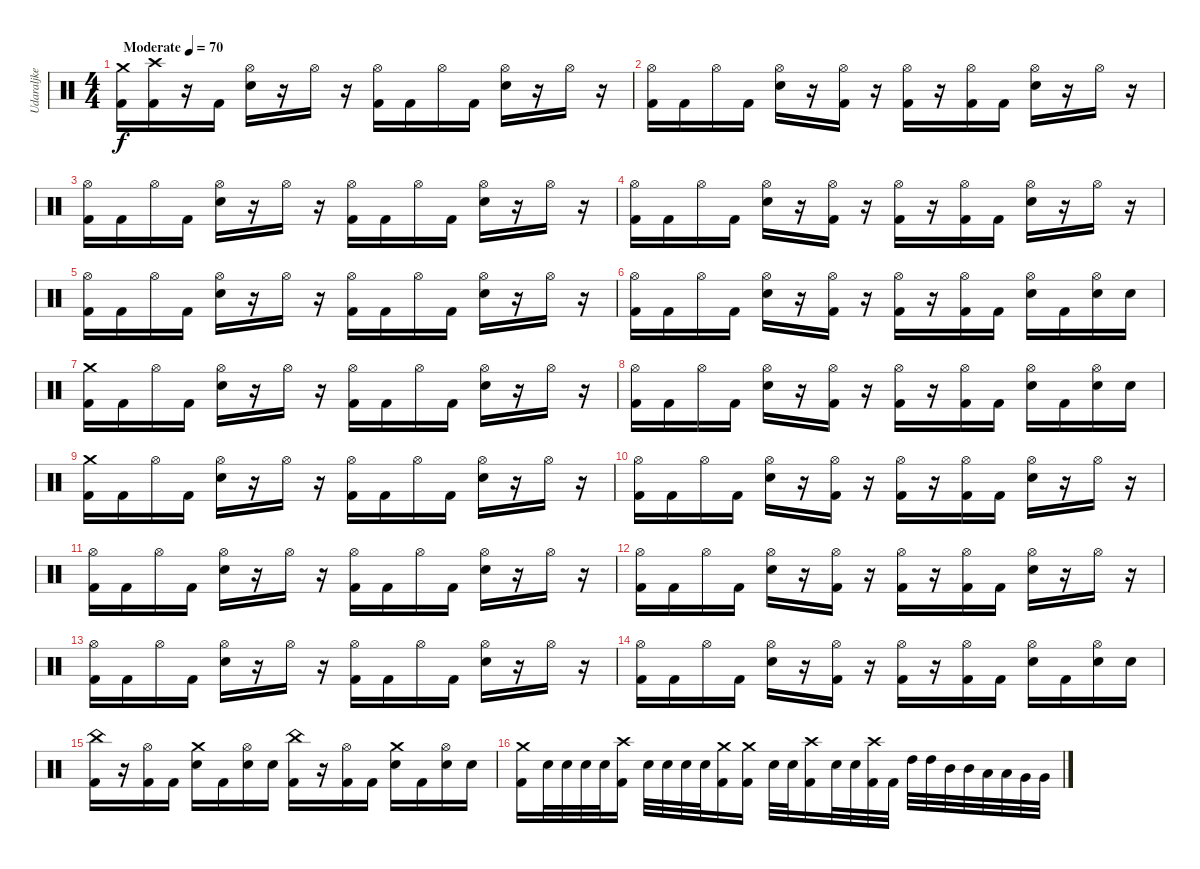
\track ("Udaraljke" "Udaraljke") {instrument percussion}
\staff {score}
\articulation defaults
\ts (4 4)
\tempo (70 "Moderate")
\clef neutral
\ks c
("Crash medium (hit)" "Kick (hit) 2").16{dy f} ("Crash high (hit)" "Kick (hit) 2").16 r.16 "Kick (hit) 2".16 ("Hi-Hat (open)" "Snare (hit) 2").16 r.16 "Hi-Hat (open)".16 r.16 ("Hi-Hat (open)" "Kick (hit) 2").16 "Kick (hit) 2".16 "Hi-Hat (open)".16 "Kick (hit) 2".16 ("Hi-Hat (open)" "Snare (hit) 2").16 r.16 "Hi-Hat (open)".16 r.16 |
("Hi-Hat (open)" "Kick (hit) 2").16 "Kick (hit) 2".16 "Hi-Hat (open)".16 "Kick (hit) 2".16 ("Hi-Hat (open)" "Snare (hit) 2").16 r.16 ("Hi-Hat (open)" "Kick (hit) 2").16 r.16 ("Hi-Hat (open)" "Kick (hit) 2").16 r.16 ("Hi-Hat (open)" "Kick (hit) 2").16 "Kick (hit) 2".16 ("Hi-Hat (open)" "Snare (hit) 2").16 r.16 "Hi-Hat (open)".16 r.16 |
("Hi-Hat (open)" "Kick (hit) 2").16 "Kick (hit) 2".16 "Hi-Hat (open)".16 "Kick (hit) 2".16 ("Hi-Hat (open)" "Snare (hit) 2").16 r.16 "Hi-Hat (open)".16 r.16 ("Hi-Hat (open)" "Kick (hit) 2").16 "Kick (hit) 2".16 "Hi-Hat (open)".16 "Kick (hit) 2".16 ("Hi-Hat (open)" "Snare (hit) 2").16 r.16 "Hi-Hat (open)".16 r.16 |
("Hi-Hat (open)" "Kick (hit) 2").16 "Kick (hit) 2".16 "Hi-Hat (open)".16 "Kick (hit) 2".16 ("Hi-Hat (open)" "Snare (hit) 2").16 r.16 ("Hi-Hat (open)" "Kick (hit) 2").16 r.16 ("Hi-Hat (open)" "Kick (hit) 2").16 r.16 ("Hi-Hat (open)" "Kick (hit) 2").16 "Kick (hit) 2".16 ("Hi-Hat (open)" "Snare (hit) 2").16 r.16 "Hi-Hat (open)".16 r.16 |
("Hi-Hat (open)" "Kick (hit) 2").16 "Kick (hit) 2".16 "Hi-Hat (open)".16 "Kick (hit) 2".16 ("Hi-Hat (open)" "Snare (hit) 2").16 r.16 "Hi-Hat (open)".16 r.16 ("Hi-Hat (open)" "Kick (hit) 2").16 "Kick (hit) 2".16 "Hi-Hat (open)".16 "Kick (hit) 2".16 ("Hi-Hat (open)" "Snare (hit) 2").16 r.16 "Hi-Hat (open)".16 r.16 |
("Hi-Hat (open)" "Kick (hit) 2").16 "Kick (hit) 2".16 "Hi-Hat (open)".16 "Kick (hit) 2".16 ("Hi-Hat (open)" "Snare (hit) 2").16 r.16 ("Hi-Hat (open)" "Kick (hit) 2").16 r.16 ("Hi-Hat (open)" "Kick (hit) 2").16 r.16 ("Hi-Hat (open)" "Kick (hit) 2").16 "Kick (hit) 2".16 ("Hi-Hat (open)" "Snare (hit) 2").16 "Kick (hit) 2".16 ("Hi-Hat (open)" "Snare (hit) 2").16 "Snare (hit) 2".16 |
("Crash medium (hit)" "Kick (hit) 2").16 "Kick (hit) 2".16 "Hi-Hat (open)".16 "Kick (hit) 2".16 ("Hi-Hat (open)" "Snare (hit) 2").16 r.16 "Hi-Hat (open)".16 r.16 ("Hi-Hat (open)" "Kick (hit) 2").16 "Kick (hit) 2".16 "Hi-Hat (open)".16 "Kick (hit) 2".16 ("Hi-Hat (open)" "Snare (hit) 2").16 r.16 "Hi-Hat (open)".16 r.16 |
("Hi-Hat (open)" "Kick (hit) 2").16 "Kick (hit) 2".16 "Hi-Hat (open)".16 "Kick (hit) 2".16 ("Hi-Hat (open)" "Snare (hit) 2").16 r.16 ("Hi-Hat (open)" "Kick (hit) 2").16 r.16 ("Hi-Hat (open)" "Kick (hit) 2").16 r.16 ("Hi-Hat (open)" "Kick (hit) 2").16 "Kick (hit) 2".16 ("Hi-Hat (open)" "Snare (hit) 2").16 "Kick (hit) 2".16 ("Hi-Hat (open)" "Snare (hit) 2").16 "Snare (hit) 2".16 |
("Crash medium (hit)" "Kick (hit) 2").16 "Kick (hit) 2".16 "Hi-Hat (open)".16 "Kick (hit) 2".16 ("Hi-Hat (open)" "Snare (hit) 2").16 r.16 "Hi-Hat (open)".16 r.16 ("Hi-Hat (open)" "Kick (hit) 2").16 "Kick (hit) 2".16 "Hi-Hat (open)".16 "Kick (hit) 2".16 ("Hi-Hat (open)" "Snare (hit) 2").16 r.16 "Hi-Hat (open)".16 r.16 |
("Hi-Hat (open)" "Kick (hit) 2").16 "Kick (hit) 2".16 "Hi-Hat (open)".16 "Kick (hit) 2".16 ("Hi-Hat (open)" "Snare (hit) 2").16 r.16 ("Hi-Hat (open)" "Kick (hit) 2").16 r.16 ("Hi-Hat (open)" "Kick (hit) 2").16 r.16 ("Hi-Hat (open)" "Kick (hit) 2").16 "Kick (hit) 2".16 ("Hi-Hat (open)" "Snare (hit) 2").16 r.16 "Hi-Hat (open)".16 r.16 |
("Hi-Hat (open)" "Kick (hit) 2").16 "Kick (hit) 2".16 "Hi-Hat (open)".16 "Kick (hit) 2".16 ("Hi-Hat (open)" "Snare (hit) 2").16 r.16 "Hi-Hat (open)".16 r.16 ("Hi-Hat (open)" "Kick (hit) 2").16 "Kick (hit) 2".16 "Hi-Hat (open)".16 "Kick (hit) 2".16 ("Hi-Hat (open)" "Snare (hit) 2").16 r.16 "Hi-Hat (open)".16 r.16 |
("Hi-Hat (open)" "Kick (hit) 2").16 "Kick (hit) 2".16 "Hi-Hat (open)".16 "Kick (hit) 2".16 ("Hi-Hat (open)" "Snare (hit) 2").16 r.16 ("Hi-Hat (open)" "Kick (hit) 2").16 r.16 ("Hi-Hat (open)" "Kick (hit) 2").16 r.16 ("Hi-Hat (open)" "Kick (hit) 2").16 "Kick (hit) 2".16 ("Hi-Hat (open)" "Snare (hit) 2").16 r.16 "Hi-Hat (open)".16 r.16 |
("Hi-Hat (open)" "Kick (hit) 2").16 "Kick (hit) 2".16 "Hi-Hat (open)".16 "Kick (hit) 2".16 ("Hi-Hat (open)" "Snare (hit) 2").16 r.16 "Hi-Hat (open)".16 r.16 ("Hi-Hat (open)" "Kick (hit) 2").16 "Kick (hit) 2".16 "Hi-Hat (open)".16 "Kick (hit) 2".16 ("Hi-Hat (open)" "Snare (hit) 2").16 r.16 "Hi-Hat (open)".16 r.16 |
("Hi-Hat (open)" "Kick (hit) 2").16 "Kick (hit) 2".16 "Hi-Hat (open)".16 "Kick (hit) 2".16 ("Hi-Hat (open)" "Snare (hit) 2").16 r.16 ("Hi-Hat (open)" "Kick (hit) 2").16 r.16 ("Hi-Hat (open)" "Kick (hit) 2").16 r.16 ("Hi-Hat (open)" "Kick (hit) 2").16 "Kick (hit) 2".16 ("Hi-Hat (open)" "Snare (hit) 2").16 "Kick (hit) 2".16 ("Hi-Hat (open)" "Snare (hit) 2").16 "Snare (hit) 2".16 |
("China (hit)" "Kick (hit) 2").16 r.16 ("Hi-Hat (open)" "Kick (hit) 2").16 "Kick (hit) 2".16 ("Crash medium (hit)" "Snare (hit) 2").16 "Kick (hit) 2".16 ("Hi-Hat (open)" "Snare (hit) 2").16 "Snare (hit) 2".16 ("China (hit)" "Kick (hit) 2").16 r.16 ("Hi-Hat (open)" "Kick (hit) 2").16 "Kick (hit) 2".16 ("Crash medium (hit)" "Snare (hit) 2").16 "Kick (hit) 2".16 ("Hi-Hat (open)" "Snare (hit) 2").16 "Snare (hit) 2".16 |
("Crash medium (hit)" "Kick (hit) 2").16 "Snare (hit) 2".32 "Snare (hit) 2".32 "Snare (hit) 2".32 "Snare (hit) 2".32 ("Crash high (hit)" "Kick (hit) 2").16 "Snare (hit) 2".32 "Snare (hit) 2".32 "Snare (hit) 2".32 "Snare (hit) 2".32 ("Crash medium (hit)" "Kick (hit) 2").16 ("Crash medium (hit)" "Kick (hit) 2").16 "Snare (hit) 2".32 "Snare (hit) 2".32 ("Crash high (hit)" "Kick (hit) 2").16 "Snare (hit) 2".32 "Snare (hit) 2".32 ("Crash high (hit)" "Kick (hit) 2").32 "Kick (hit) 2".32 "High Tom (hit)".32 "High Tom (hit)".32 "Mid Tom (hit)".32 "Mid Tom (hit)".32 "Low Tom (hit)".32 "Low Tom (hit)".32 "Very Low Tom (hit)".32 "Very Low Tom (hit)".32
